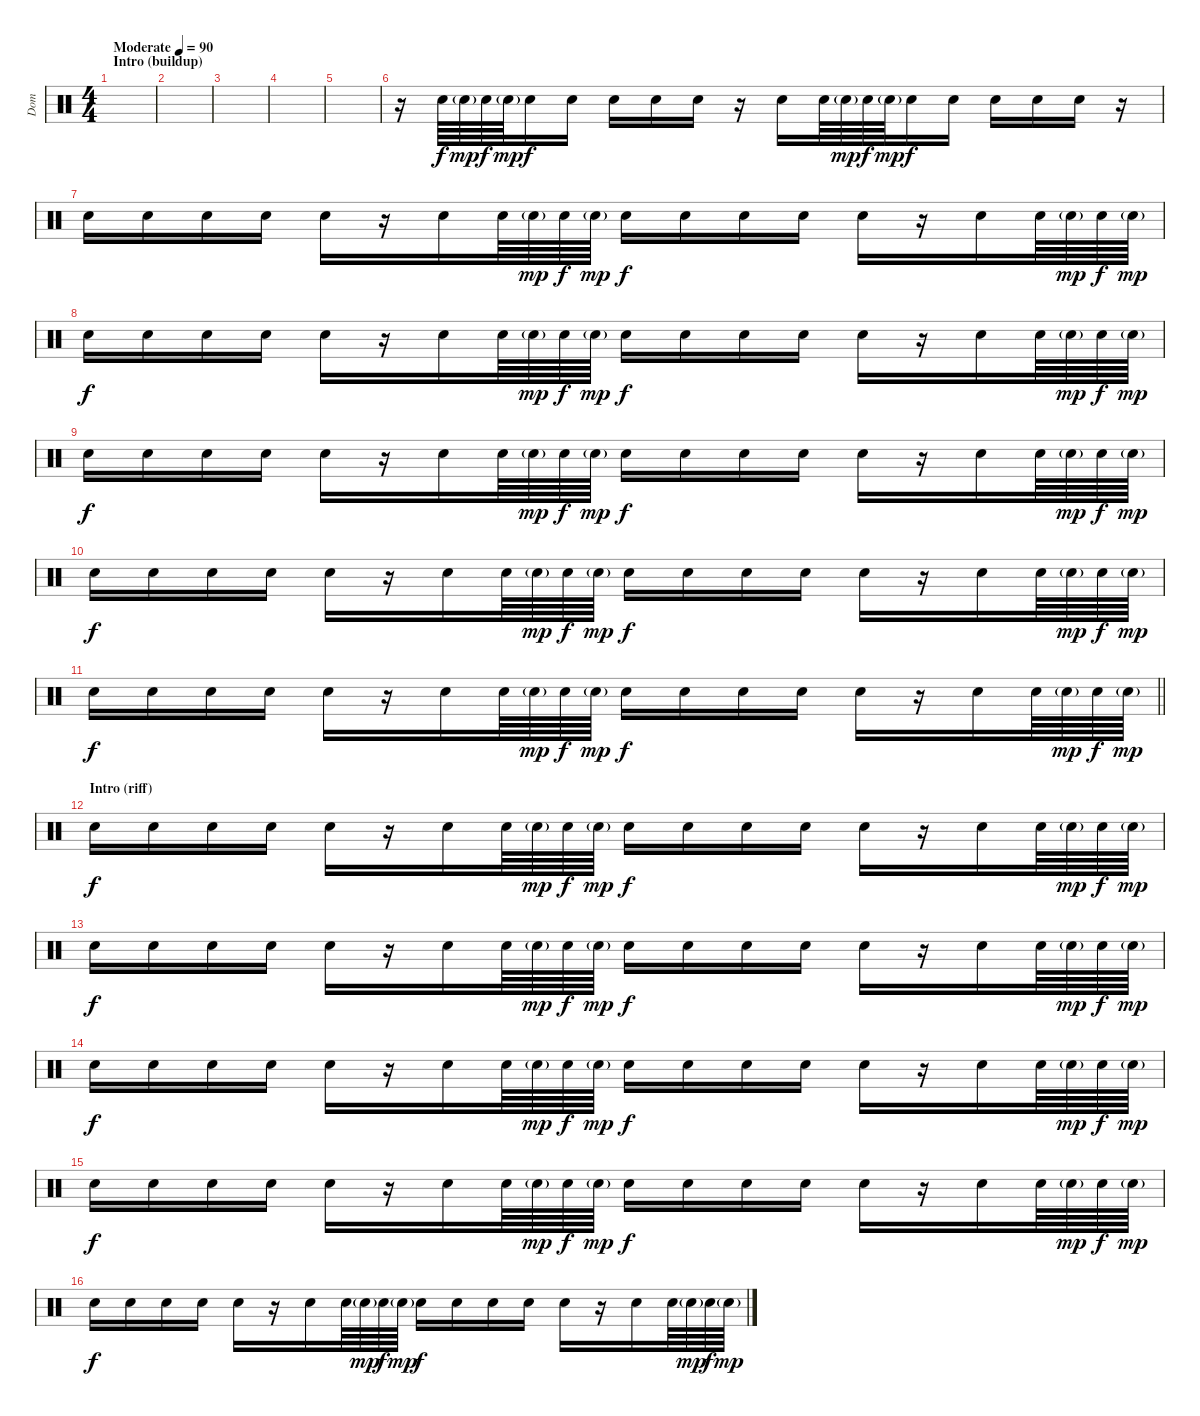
\track ("Dom" "Dom") {instrument percussion}
\staff {score}
\articulation defaults
\ts (4 4)
\section ("" "Intro (buildup)")
\tempo (90 "Moderate")
\clef neutral
\ks c
|
|
|
|
|
r.16 "Snare (hit) 2".64{volume 5} "Snare (hit) 2"{g}.64{dy mp} "Snare (hit) 2".64{dy f} "Snare (hit) 2"{g}.64{dy mp} "Snare (hit) 2".16{dy f} "Snare (hit) 2".16 "Snare (hit) 2".16 "Snare (hit) 2".16 "Snare (hit) 2".16 r.16 "Snare (hit) 2".16 "Snare (hit) 2".64 "Snare (hit) 2"{g}.64{dy mp} "Snare (hit) 2".64{dy f} "Snare (hit) 2"{g}.64{dy mp} "Snare (hit) 2".16{dy f} "Snare (hit) 2".16 "Snare (hit) 2".16 "Snare (hit) 2".16 "Snare (hit) 2".16 r.16 |
"Snare (hit) 2".16 "Snare (hit) 2".16 "Snare (hit) 2".16 "Snare (hit) 2".16 "Snare (hit) 2".16 r.16 "Snare (hit) 2".16 "Snare (hit) 2".64 "Snare (hit) 2"{g}.64{dy mp} "Snare (hit) 2".64{dy f} "Snare (hit) 2"{g}.64{dy mp} "Snare (hit) 2".16{dy f} "Snare (hit) 2".16 "Snare (hit) 2".16 "Snare (hit) 2".16 "Snare (hit) 2".16 r.16 "Snare (hit) 2".16 "Snare (hit) 2".64 "Snare (hit) 2"{g}.64{dy mp} "Snare (hit) 2".64{dy f} "Snare (hit) 2"{g}.64{dy mp} |
"Snare (hit) 2".16{dy f} "Snare (hit) 2".16 "Snare (hit) 2".16 "Snare (hit) 2".16 "Snare (hit) 2".16 r.16 "Snare (hit) 2".16 "Snare (hit) 2".64 "Snare (hit) 2"{g}.64{dy mp} "Snare (hit) 2".64{dy f} "Snare (hit) 2"{g}.64{dy mp} "Snare (hit) 2".16{dy f} "Snare (hit) 2".16 "Snare (hit) 2".16 "Snare (hit) 2".16 "Snare (hit) 2".16 r.16 "Snare (hit) 2".16 "Snare (hit) 2".64 "Snare (hit) 2"{g}.64{dy mp} "Snare (hit) 2".64{dy f} "Snare (hit) 2"{g}.64{dy mp} |
"Snare (hit) 2".16{dy f} "Snare (hit) 2".16 "Snare (hit) 2".16 "Snare (hit) 2".16 "Snare (hit) 2".16 r.16 "Snare (hit) 2".16 "Snare (hit) 2".64 "Snare (hit) 2"{g}.64{dy mp} "Snare (hit) 2".64{dy f} "Snare (hit) 2"{g}.64{dy mp} "Snare (hit) 2".16{dy f} "Snare (hit) 2".16 "Snare (hit) 2".16 "Snare (hit) 2".16 "Snare (hit) 2".16 r.16 "Snare (hit) 2".16 "Snare (hit) 2".64 "Snare (hit) 2"{g}.64{dy mp} "Snare (hit) 2".64{dy f} "Snare (hit) 2"{g}.64{dy mp} |
"Snare (hit) 2".16{dy f} "Snare (hit) 2".16 "Snare (hit) 2".16 "Snare (hit) 2".16 "Snare (hit) 2".16 r.16 "Snare (hit) 2".16 "Snare (hit) 2".64 "Snare (hit) 2"{g}.64{dy mp} "Snare (hit) 2".64{dy f} "Snare (hit) 2"{g}.64{dy mp} "Snare (hit) 2".16{dy f} "Snare (hit) 2".16 "Snare (hit) 2".16 "Snare (hit) 2".16 "Snare (hit) 2".16 r.16 "Snare (hit) 2".16 "Snare (hit) 2".64 "Snare (hit) 2"{g}.64{dy mp} "Snare (hit) 2".64{dy f} "Snare (hit) 2"{g}.64{dy mp} |
\barLineRight lightlight "Snare (hit) 2".16{dy f} "Snare (hit) 2".16 "Snare (hit) 2".16 "Snare (hit) 2".16 "Snare (hit) 2".16
r.16 "Snare (hit) 2".16 "Snare (hit) 2".64 "Snare (hit) 2"{g}.64{dy mp} "Snare (hit) 2".64{dy f} "Snare (hit) 2"{g}.64{dy mp} "Snare (hit) 2".16{dy f} "Snare (hit) 2".16 "Snare (hit) 2".16 "Snare (hit) 2".16 "Snare (hit) 2".16 r.16 "Snare (hit) 2".16 "Snare (hit) 2".64 "Snare (hit) 2"{g}.64{dy mp} "Snare (hit) 2".64{dy f} "Snare (hit) 2"{g}.64{dy mp} |
\section ("" "Intro (riff)")
"Snare (hit) 2".16{dy f} "Snare (hit) 2".16 "Snare (hit) 2".16 "Snare (hit) 2".16 "Snare (hit) 2".16 r.16 "Snare (hit) 2".16 "Snare (hit) 2".64 "Snare (hit) 2"{g}.64{dy mp} "Snare (hit) 2".64{dy f} "Snare (hit) 2"{g}.64{dy mp} "Snare (hit) 2".16{dy f} "Snare (hit) 2".16 "Snare (hit) 2".16 "Snare (hit) 2".16 "Snare (hit) 2".16 r.16 "Snare (hit) 2".16 "Snare (hit) 2".64 "Snare (hit) 2"{g}.64{dy mp} "Snare (hit) 2".64{dy f} "Snare (hit) 2"{g}.64{dy mp} |
"Snare (hit) 2".16{dy f} "Snare (hit) 2".16 "Snare (hit) 2".16 "Snare (hit) 2".16 "Snare (hit) 2".16 r.16 "Snare (hit) 2".16 "Snare (hit) 2".64 "Snare (hit) 2"{g}.64{dy mp} "Snare (hit) 2".64{dy f} "Snare (hit) 2"{g}.64{dy mp} "Snare (hit) 2".16{dy f} "Snare (hit) 2".16 "Snare (hit) 2".16 "Snare (hit) 2".16 "Snare (hit) 2".16 r.16 "Snare (hit) 2".16 "Snare (hit) 2".64 "Snare (hit) 2"{g}.64{dy mp} "Snare (hit) 2".64{dy f} "Snare (hit) 2"{g}.64{dy mp} |
"Snare (hit) 2".16{dy f} "Snare (hit) 2".16 "Snare (hit) 2".16 "Snare (hit) 2".16 "Snare (hit) 2".16 r.16 "Snare (hit) 2".16 "Snare (hit) 2".64 "Snare (hit) 2"{g}.64{dy mp} "Snare (hit) 2".64{dy f} "Snare (hit) 2"{g}.64{dy mp} "Snare (hit) 2".16{dy f} "Snare (hit) 2".16 "Snare (hit) 2".16 "Snare (hit) 2".16 "Snare (hit) 2".16 r.16 "Snare (hit) 2".16 "Snare (hit) 2".64 "Snare (hit) 2"{g}.64{dy mp} "Snare (hit) 2".64{dy f} "Snare (hit) 2"{g}.64{dy mp} |
"Snare (hit) 2".16{dy f} "Snare (hit) 2".16 "Snare (hit) 2".16 "Snare (hit) 2".16 "Snare (hit) 2".16 r.16 "Snare (hit) 2".16 "Snare (hit) 2".64 "Snare (hit) 2"{g}.64{dy mp} "Snare (hit) 2".64{dy f} "Snare (hit) 2"{g}.64{dy mp} "Snare (hit) 2".16{dy f} "Snare (hit) 2".16 "Snare (hit) 2".16 "Snare (hit) 2".16 "Snare (hit) 2".16 r.16 "Snare (hit) 2".16 "Snare (hit) 2".64 "Snare (hit) 2"{g}.64{dy mp} "Snare (hit) 2".64{dy f} "Snare (hit) 2"{g}.64{dy mp} |
"Snare (hit) 2".16{dy f} "Snare (hit) 2".16 "Snare (hit) 2".16 "Snare (hit) 2".16 "Snare (hit) 2".16 r.16 "Snare (hit) 2".16 "Snare (hit) 2".64 "Snare (hit) 2"{g}.64{dy mp} "Snare (hit) 2".64{dy f} "Snare (hit) 2"{g}.64{dy mp} "Snare (hit) 2".16{dy f} "Snare (hit) 2".16 "Snare (hit) 2".16 "Snare (hit) 2".16 "Snare (hit) 2".16 r.16 "Snare (hit) 2".16 "Snare (hit) 2".64 "Snare (hit) 2"{g}.64{dy mp} "Snare (hit) 2".64{dy f} "Snare (hit) 2"{g}.64{dy mp}
